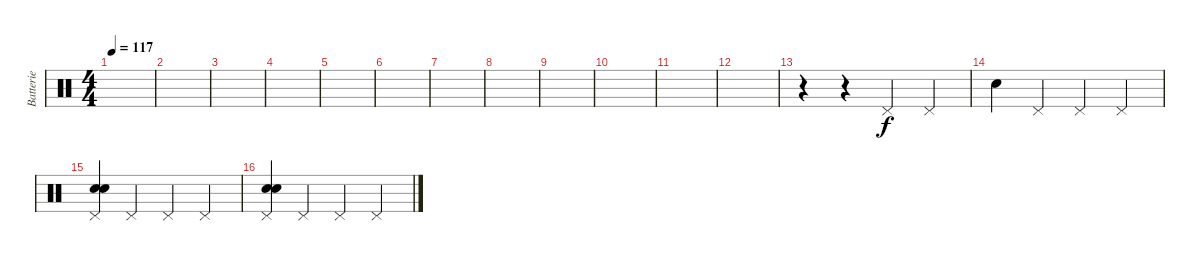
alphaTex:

\track ("Batterie" "Batterie") {instrument percussion}
\staff {score}
\articulation defaults
\ts (4 4)
\tempo 117
\clef neutral
\ks c
|
|
|
|
|
|
|
|
|
|
|
|
r.4 r.4 "Pedal Hi-Hat (hit)".4 "Pedal Hi-Hat (hit)".4 |
"Electric Snare (hit)".4 "Pedal Hi-Hat (hit)".4 "Pedal Hi-Hat (hit)".4 "Pedal Hi-Hat (hit)".4 |
("Pedal Hi-Hat (hit)" "Snare (hit) 2" "Electric Snare (hit)").4 "Pedal Hi-Hat (hit)".4 "Pedal Hi-Hat (hit)".4 "Pedal Hi-Hat (hit)".4 |
("Pedal Hi-Hat (hit)" "Snare (hit) 2" "Electric Snare (hit)").4 "Pedal Hi-Hat (hit)".4 "Pedal Hi-Hat (hit)".4 "Pedal Hi-Hat (hit)".4
